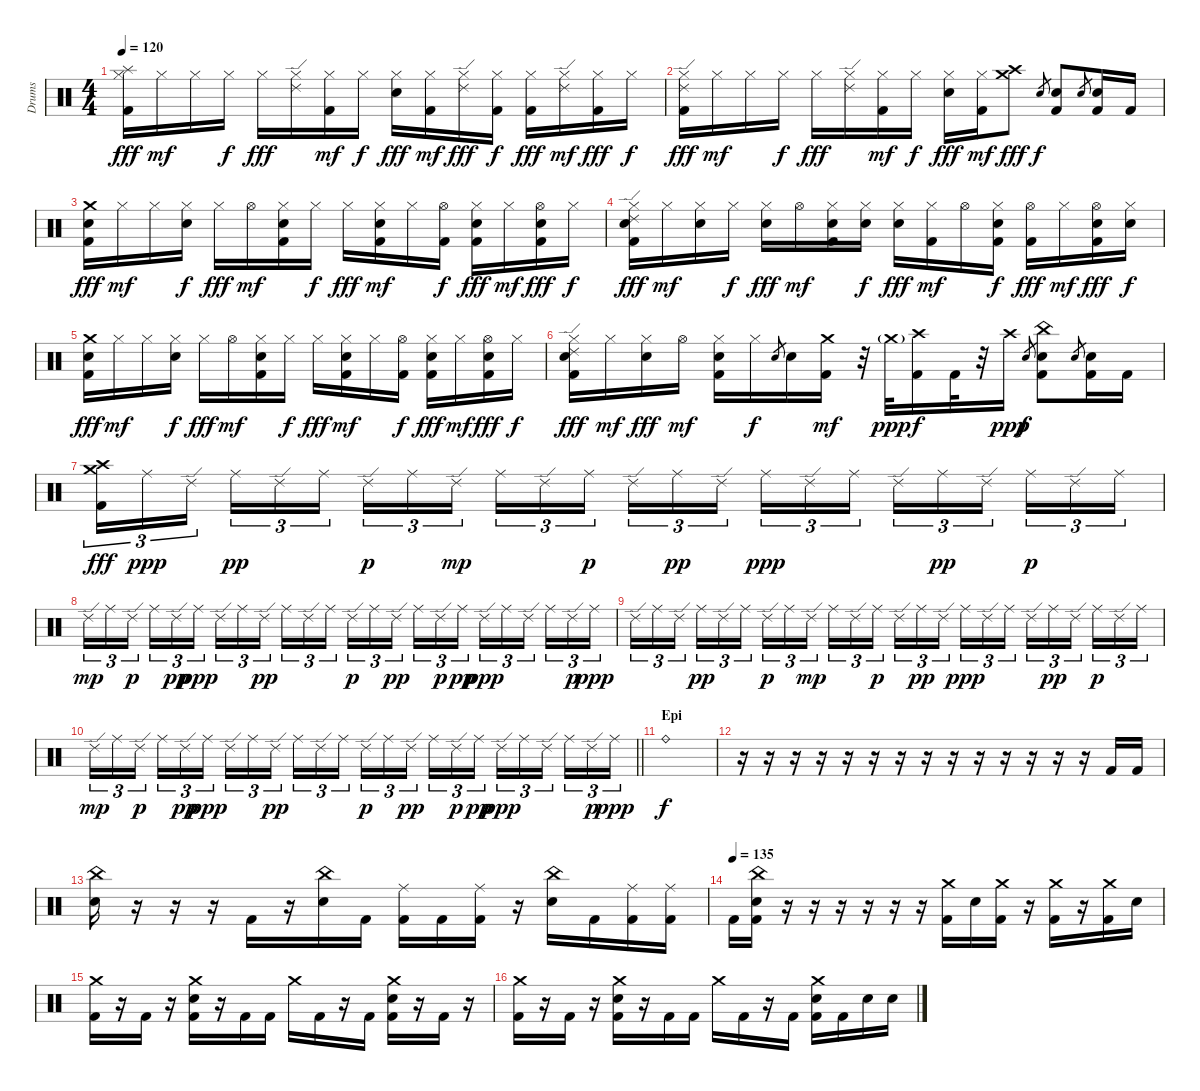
\track ("Drums" "Drums") {instrument percussion}
\staff {score}
\articulation defaults
\ts (4 4)
\tempo 120
\clef neutral
\ks c
("Hi-Hat (closed)" "Splash (hit)" "Kick (hit) 2").16{dy fff} "Hi-Hat (closed)".16{dy mf} "Hi-Hat (closed)".16 "Hi-Hat (closed)".16{dy f} "Hi-Hat (closed)".16{dy fff} ("Hi-Hat (closed)" "Ride (edge) 2").16 ("Hi-Hat (closed)" "Kick (hit) 2").16{dy mf} "Hi-Hat (closed)".16{dy f} ("Hi-Hat (closed)" "Electric Snare (hit)").16{dy fff} ("Hi-Hat (closed)" "Kick (hit) 2").16{dy mf} ("Hi-Hat (closed)" "Ride (edge) 2").16{dy fff} ("Hi-Hat (closed)" "Kick (hit) 2").16{dy f} ("Hi-Hat (closed)" "Kick (hit) 2").16{dy fff} ("Hi-Hat (closed)" "Ride (edge) 2").16{dy mf} ("Hi-Hat (closed)" "Kick (hit) 2").16{dy fff} "Hi-Hat (closed)".16{dy f} |
("Hi-Hat (closed)" "Ride (edge) 2" "Kick (hit) 2").16{dy fff} "Hi-Hat (closed)".16{dy mf} "Hi-Hat (closed)".16 "Hi-Hat (closed)".16{dy f} "Hi-Hat (closed)".16{dy fff} ("Hi-Hat (closed)" "Ride (edge) 2").16 ("Hi-Hat (closed)" "Kick (hit) 2").16{dy mf} "Hi-Hat (closed)".16{dy f} ("Hi-Hat (closed)" "Electric Snare (hit)").16{dy fff} ("Hi-Hat (closed)" "Kick (hit) 2").16{dy mf} ("Crash medium (hit)" "Crash high (hit)").8{dy fff} "Electric Snare (hit)".8{gr dy f} ("Electric Snare (hit)" "Kick (hit) 2").8 "Electric Snare (hit)".8{gr} ("Electric Snare (hit)" "Kick (hit) 2").16 "Kick (hit) 2".16 |
("Crash medium (hit)" "Electric Snare (hit)" "Kick (hit) 2").16{dy fff} "Hi-Hat (closed)".16{dy mf} "Hi-Hat (closed)".16 ("Hi-Hat (closed)" "Electric Snare (hit)").16{dy f} "Hi-Hat (closed)".16{dy fff} "Hi-Hat (open)".16{dy mf} ("Hi-Hat (closed)" "Electric Snare (hit)" "Kick (hit) 2").16 "Hi-Hat (closed)".16{dy f} "Hi-Hat (closed)".16{dy fff} ("Hi-Hat (closed)" "Electric Snare (hit)" "Kick (hit) 2").16{dy mf} "Hi-Hat (closed)".16 ("Hi-Hat (open)" "Kick (hit) 2").16{dy f} ("Hi-Hat (closed)" "Electric Snare (hit)" "Kick (hit) 2").16{dy fff} "Hi-Hat (closed)".16{dy mf} ("Hi-Hat (open)" "Electric Snare (hit)" "Kick (hit) 2").16{dy fff} "Hi-Hat (closed)".16{dy f} |
("Hi-Hat (closed)" "Ride (edge) 2" "Electric Snare (hit)" "Kick (hit) 2").16{dy fff} "Hi-Hat (closed)".16{dy mf} ("Hi-Hat (closed)" "Electric Snare (hit)").16 "Hi-Hat (closed)".16{dy f} ("Hi-Hat (closed)" "Electric Snare (hit)").16{dy fff} "Hi-Hat (open)".16{dy mf} ("Hi-Hat (closed)" "Electric Snare (hit)" "Kick (hit) 2").16 ("Hi-Hat (closed)" "Electric Snare (hit)").16{dy f} ("Hi-Hat (closed)" "Electric Snare (hit)").16{dy fff} ("Hi-Hat (closed)" "Kick (hit) 2").16{dy mf} "Hi-Hat (open)".16 ("Hi-Hat (closed)" "Electric Snare (hit)" "Kick (hit) 2").16{dy f} ("Hi-Hat (open)" "Kick (hit) 2").16{dy fff} "Hi-Hat (closed)".16{dy mf} ("Hi-Hat (open)" "Electric Snare (hit)" "Kick (hit) 2").16{dy fff} ("Hi-Hat (closed)" "Electric Snare (hit)").16{dy f} |
("Crash medium (hit)" "Electric Snare (hit)" "Kick (hit) 2").16{dy fff} "Hi-Hat (closed)".16{dy mf} "Hi-Hat (closed)".16 ("Hi-Hat (closed)" "Electric Snare (hit)").16{dy f} "Hi-Hat (closed)".16{dy fff} "Hi-Hat (open)".16{dy mf} ("Hi-Hat (closed)" "Electric Snare (hit)" "Kick (hit) 2").16 "Hi-Hat (closed)".16{dy f} "Hi-Hat (closed)".16{dy fff} ("Hi-Hat (closed)" "Electric Snare (hit)" "Kick (hit) 2").16{dy mf} "Hi-Hat (closed)".16 ("Hi-Hat (open)" "Kick (hit) 2").16{dy f} ("Hi-Hat (closed)" "Electric Snare (hit)" "Kick (hit) 2").16{dy fff} "Hi-Hat (closed)".16{dy mf} ("Hi-Hat (open)" "Electric Snare (hit)" "Kick (hit) 2").16{dy fff} "Hi-Hat (closed)".16{dy f} |
("Hi-Hat (closed)" "Ride (edge) 2" "Electric Snare (hit)" "Kick (hit) 2").16{dy fff} "Hi-Hat (closed)".16{dy mf} ("Hi-Hat (closed)" "Electric Snare (hit)").16{dy fff} "Hi-Hat (open)".16{dy mf} ("Hi-Hat (closed)" "Electric Snare (hit)" "Kick (hit) 2").16 "Hi-Hat (closed)".16{dy f} "Electric Snare (hit)".8{gr} "Electric Snare (hit)".16 ("Crash medium (hit)" "Kick (hit) 2").16{dy mf} r.32 "Crash medium (hit)"{g}.32{dy ppp} ("Crash high (hit)" "Kick (hit) 2").16{dy f} "Kick (hit) 2".32 r.32 "Crash high (hit)".16{dy ppp} "Electric Snare (hit)".8{gr dy f} ("China (hit)" "Electric Snare (hit)" "Kick (hit) 2").8 "Electric Snare (hit)".8{gr} ("Electric Snare (hit)" "Kick (hit) 2").16 "Kick (hit) 2".16 |
("Crash high (hit)" "Crash medium (hit)" "Kick (hit) 2").16{tu (3 2) dy fff} "Ride (middle)".16{tu (3 2) dy ppp} "Ride (edge) 2".16{tu (3 2)} "Ride (middle)".16{tu (3 2) dy pp} "Ride (edge) 2".16{tu (3 2)} "Ride (middle)".16{tu (3 2)} "Ride (edge) 2".16{tu (3 2) dy p} "Ride (middle)".16{tu (3 2)} "Ride (edge) 2".16{tu (3 2) dy mp} "Ride (middle)".16{tu (3 2)} "Ride (edge) 2".16{tu (3 2)} "Ride (middle)".16{tu (3 2) dy p} "Ride (edge) 2".16{tu (3 2)} "Ride (middle)".16{tu (3 2) dy pp} "Ride (edge) 2".16{tu (3 2)} "Ride (middle)".16{tu (3 2) dy ppp} "Ride (edge) 2".16{tu (3 2)} "Ride (middle)".16{tu (3 2)} "Ride (edge) 2".16{tu (3 2)} "Ride (middle)".16{tu (3 2) dy pp} "Ride (edge) 2".16{tu (3 2)} "Ride (middle)".16{tu (3 2) dy p} "Ride (edge) 2".16{tu (3 2)} "Ride (middle)".16{tu (3 2)} |
"Ride (edge) 2".16{tu (3 2) dy mp} "Ride (middle)".16{tu (3 2)} "Ride (edge) 2".16{tu (3 2) dy p} "Ride (middle)".16{tu (3 2)} "Ride (edge) 2".16{tu (3 2) dy pp} "Ride (middle)".16{tu (3 2) dy ppp} "Ride (edge) 2".16{tu (3 2)} "Ride (middle)".16{tu (3 2)} "Ride (edge) 2".16{tu (3 2) dy pp} "Ride (middle)".16{tu (3 2)} "Ride (edge) 2".16{tu (3 2)} "Ride (middle)".16{tu (3 2)} "Ride (edge) 2".16{tu (3 2) dy p} "Ride (middle)".16{tu (3 2)} "Ride (edge) 2".16{tu (3 2) dy pp} "Ride (middle)".16{tu (3 2)} "Ride (edge) 2".16{tu (3 2) dy p} "Ride (middle)".16{tu (3 2) dy pp} "Ride (edge) 2".16{tu (3 2) dy ppp} "Ride (middle)".16{tu (3 2)} "Ride (edge) 2".16{tu (3 2)} "Ride (middle)".16{tu (3 2)} "Ride (edge) 2".16{tu (3 2) dy p} "Ride (middle)".16{tu (3 2) dy ppp} |
"Ride (edge) 2".16{tu (3 2)} "Ride (middle)".16{tu (3 2)} "Ride (edge) 2".16{tu (3 2)} "Ride (middle)".16{tu (3 2) dy pp} "Ride (edge) 2".16{tu (3 2)} "Ride (middle)".16{tu (3 2)} "Ride (edge) 2".16{tu (3 2) dy p} "Ride (middle)".16{tu (3 2)} "Ride (edge) 2".16{tu (3 2) dy mp} "Ride (middle)".16{tu (3 2)} "Ride (edge) 2".16{tu (3 2)} "Ride (middle)".16{tu (3 2) dy p} "Ride (edge) 2".16{tu (3 2)} "Ride (middle)".16{tu (3 2) dy pp} "Ride (edge) 2".16{tu (3 2)} "Ride (middle)".16{tu (3 2) dy ppp} "Ride (edge) 2".16{tu (3 2)} "Ride (middle)".16{tu (3 2)} "Ride (edge) 2".16{tu (3 2)} "Ride (middle)".16{tu (3 2) dy pp} "Ride (edge) 2".16{tu (3 2)} "Ride (middle)".16{tu (3 2) dy p} "Ride (edge) 2".16{tu (3 2)} "Ride (middle)".16{tu (3 2)} |
\barLineRight lightlight "Ride (edge) 2".16{tu (3 2) dy mp} "Ride (middle)".16{tu (3 2)} "Ride (edge) 2".16{tu (3 2) dy p} "Ride (middle)".16{tu (3 2)} "Ride (edge) 2".16{tu (3 2) dy pp} "Ride (middle)".16{tu (3 2) dy ppp} "Ride (edge) 2".16{tu (3 2)} "Ride (middle)".16{tu (3 2)} "Ride (edge) 2".16{tu (3 2) dy pp} "Ride (middle)".16{tu (3 2)} "Ride (edge) 2".16{tu (3 2)} "Ride (middle)".16{tu (3 2)} "Ride (edge) 2".16{tu (3 2) dy p} "Ride (middle)".16{tu (3 2)} "Ride (edge) 2".16{tu (3 2) dy pp} "Ride (middle)".16{tu (3 2)} "Ride (edge) 2".16{tu (3 2) dy p} "Ride (middle)".16{tu (3 2) dy pp} "Ride (edge) 2".16{tu (3 2) dy ppp} "Ride (middle)".16{tu (3 2)} "Ride (edge) 2".16{tu (3 2)} "Ride (middle)".16{tu (3 2)} "Ride (edge) 2".16{tu (3 2) dy p} "Ride (middle)".16{tu (3 2) dy ppp}
|
\section ("" "Epi")
"Ride (bell)".1{dy f} |
r.16 r.16 r.16 r.16 r.16 r.16 r.16 r.16 r.16 r.16 r.16 r.16 r.16 r.16 "Kick (hit) 2".16 "Kick (hit) 2".16 |
("China (hit)" "Electric Snare (hit)").16 r.16 r.16 r.16 "Kick (hit) 2".16 r.16 ("China (hit)" "Electric Snare (hit)").16 "Kick (hit) 2".16 ("Ride (middle)" "Kick (hit) 2").16 "Kick (hit) 2".16 ("Ride (middle)" "Kick (hit) 2").16 r.16 ("China (hit)" "Electric Snare (hit)").16 "Kick (hit) 2".16 ("Ride (middle)" "Kick (hit) 2").16 ("Ride (middle)" "Kick (hit) 2").16 |
\tempo (135)
"Kick (hit) 2".16 ("China (hit)" "Electric Snare (hit)" "Kick (hit) 2").16 r.16 r.16 r.16 r.16 r.16 r.16 ("Crash medium (hit)" "Kick (hit) 2").16 "Electric Snare (hit)".16 ("Crash medium (hit)" "Kick (hit) 2").16 r.16 ("Crash medium (hit)" "Kick (hit) 2").16 r.16 ("Crash medium (hit)" "Kick (hit) 2").16 "Electric Snare (hit)".16 |
("Crash medium (hit)" "Kick (hit) 2").16 r.16 "Kick (hit) 2".16 r.16 ("Crash medium (hit)" "Electric Snare (hit)" "Kick (hit) 2").16 r.16 "Kick (hit) 2".16 "Kick (hit) 2".16 "Crash medium (hit)".16 "Kick (hit) 2".16 r.16 "Kick (hit) 2".16 ("Crash medium (hit)" "Electric Snare (hit)" "Kick (hit) 2").16 r.16 "Kick (hit) 2".16 r.16 |
("Crash medium (hit)" "Kick (hit) 2").16 r.16 "Kick (hit) 2".16 r.16 ("Crash medium (hit)" "Electric Snare (hit)" "Kick (hit) 2").16 r.16 "Kick (hit) 2".16 "Kick (hit) 2".16 "Crash medium (hit)".16 "Kick (hit) 2".16 r.16 "Kick (hit) 2".16 ("Crash medium (hit)" "Electric Snare (hit)" "Kick (hit) 2").16 "Kick (hit) 2".16 "Electric Snare (hit)".16 "Electric Snare (hit)".16
